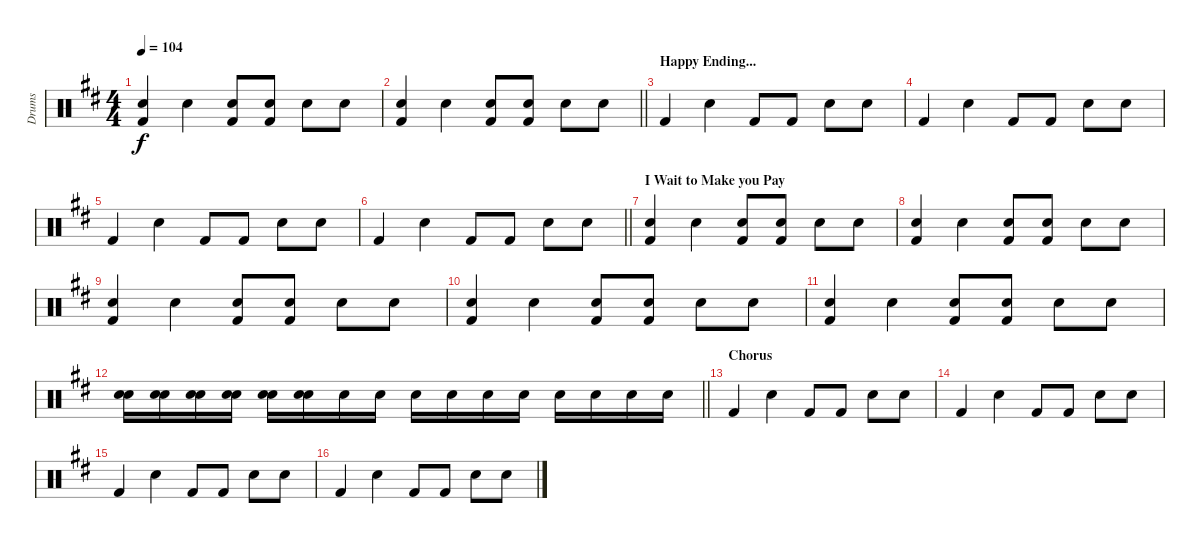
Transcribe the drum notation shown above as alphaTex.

\track ("Drums" "Drums") {instrument percussion}
\staff {score}
\articulation defaults
\ts (4 4)
\tempo 104
\clef neutral
\ks d
("Electric Snare (hit)" "Kick (hit) 2").4{dy f} "Electric Snare (hit)".4 ("Electric Snare (hit)" "Kick (hit) 2").8 ("Electric Snare (hit)" "Kick (hit) 2").8 "Electric Snare (hit)".8 "Electric Snare (hit)".8 |
\barLineRight lightlight
("Electric Snare (hit)" "Kick (hit) 2").4 "Electric Snare (hit)".4 ("Electric Snare (hit)" "Kick (hit) 2").8 ("Electric Snare (hit)" "Kick (hit) 2").8 "Electric Snare (hit)".8 "Electric Snare (hit)".8 |
\section ("" "Happy Ending...")
"Kick (hit) 2".4 "Electric Snare (hit)".4 "Kick (hit) 2".8 "Kick (hit) 2".8 "Electric Snare (hit)".8 "Electric Snare (hit)".8 |
"Kick (hit) 2".4 "Electric Snare (hit)".4 "Kick (hit) 2".8 "Kick (hit) 2".8 "Electric Snare (hit)".8 "Electric Snare (hit)".8 |
"Kick (hit) 2".4 "Electric Snare (hit)".4 "Kick (hit) 2".8 "Kick (hit) 2".8 "Electric Snare (hit)".8 "Electric Snare (hit)".8 |
\barLineRight lightlight "Kick (hit) 2".4 "Electric Snare (hit)".4 "Kick (hit) 2".8 "Kick (hit) 2".8 "Electric Snare (hit)".8 "Electric Snare (hit)".8
|
\section ("" "I Wait to Make you Pay")
("Snare (hit)" "Kick (hit) 2").4 "Electric Snare (hit)".4 ("Snare (hit)" "Kick (hit) 2").8 ("Snare (hit)" "Kick (hit) 2").8 "Electric Snare (hit)".8 "Electric Snare (hit)".8 |
("Snare (hit)" "Kick (hit) 2").4 "Electric Snare (hit)".4 ("Snare (hit)" "Kick (hit) 2").8 ("Snare (hit)" "Kick (hit) 2").8 "Electric Snare (hit)".8 "Electric Snare (hit)".8 |
("Snare (hit)" "Kick (hit) 2").4 "Electric Snare (hit)".4 ("Snare (hit)" "Kick (hit) 2").8 ("Snare (hit)" "Kick (hit) 2").8 "Electric Snare (hit)".8 "Electric Snare (hit)".8 |
("Snare (hit)" "Kick (hit) 2").4 "Electric Snare (hit)".4 ("Snare (hit)" "Kick (hit) 2").8 ("Snare (hit)" "Kick (hit) 2").8 "Electric Snare (hit)".8 "Electric Snare (hit)".8 |
("Snare (hit)" "Kick (hit) 2").4 "Electric Snare (hit)".4 ("Snare (hit)" "Kick (hit) 2").8 ("Snare (hit)" "Kick (hit) 2").8 "Electric Snare (hit)".8 "Electric Snare (hit)".8 |
\barLineRight lightlight
("Snare (hit)" "Electric Snare (hit)").16 ("Electric Snare (hit)" "Electric Snare (hit)").16 ("Snare (hit)" "Electric Snare (hit)").16 ("Snare (hit)" "Electric Snare (hit)").16 ("Electric Snare (hit)" "Electric Snare (hit)").16 ("Electric Snare (hit)" "Electric Snare (hit)").16 "Electric Snare (hit)".16 "Electric Snare (hit)".16 "Electric Snare (hit)".16 "Electric Snare (hit)".16 "Electric Snare (hit)".16 "Electric Snare (hit)".16 "Electric Snare (hit)".16 "Electric Snare (hit)".16 "Electric Snare (hit)".16 "Electric Snare (hit)".16 |
\section ("" "Chorus")
"Kick (hit) 2".4 "Electric Snare (hit)".4 "Kick (hit) 2".8 "Kick (hit) 2".8 "Electric Snare (hit)".8 "Electric Snare (hit)".8 |
"Kick (hit) 2".4 "Electric Snare (hit)".4 "Kick (hit) 2".8 "Kick (hit) 2".8 "Electric Snare (hit)".8 "Electric Snare (hit)".8 |
"Kick (hit) 2".4 "Electric Snare (hit)".4 "Kick (hit) 2".8 "Kick (hit) 2".8 "Electric Snare (hit)".8 "Electric Snare (hit)".8 |
"Kick (hit) 2".4 "Electric Snare (hit)".4 "Kick (hit) 2".8 "Kick (hit) 2".8 "Electric Snare (hit)".8 "Electric Snare (hit)".8
